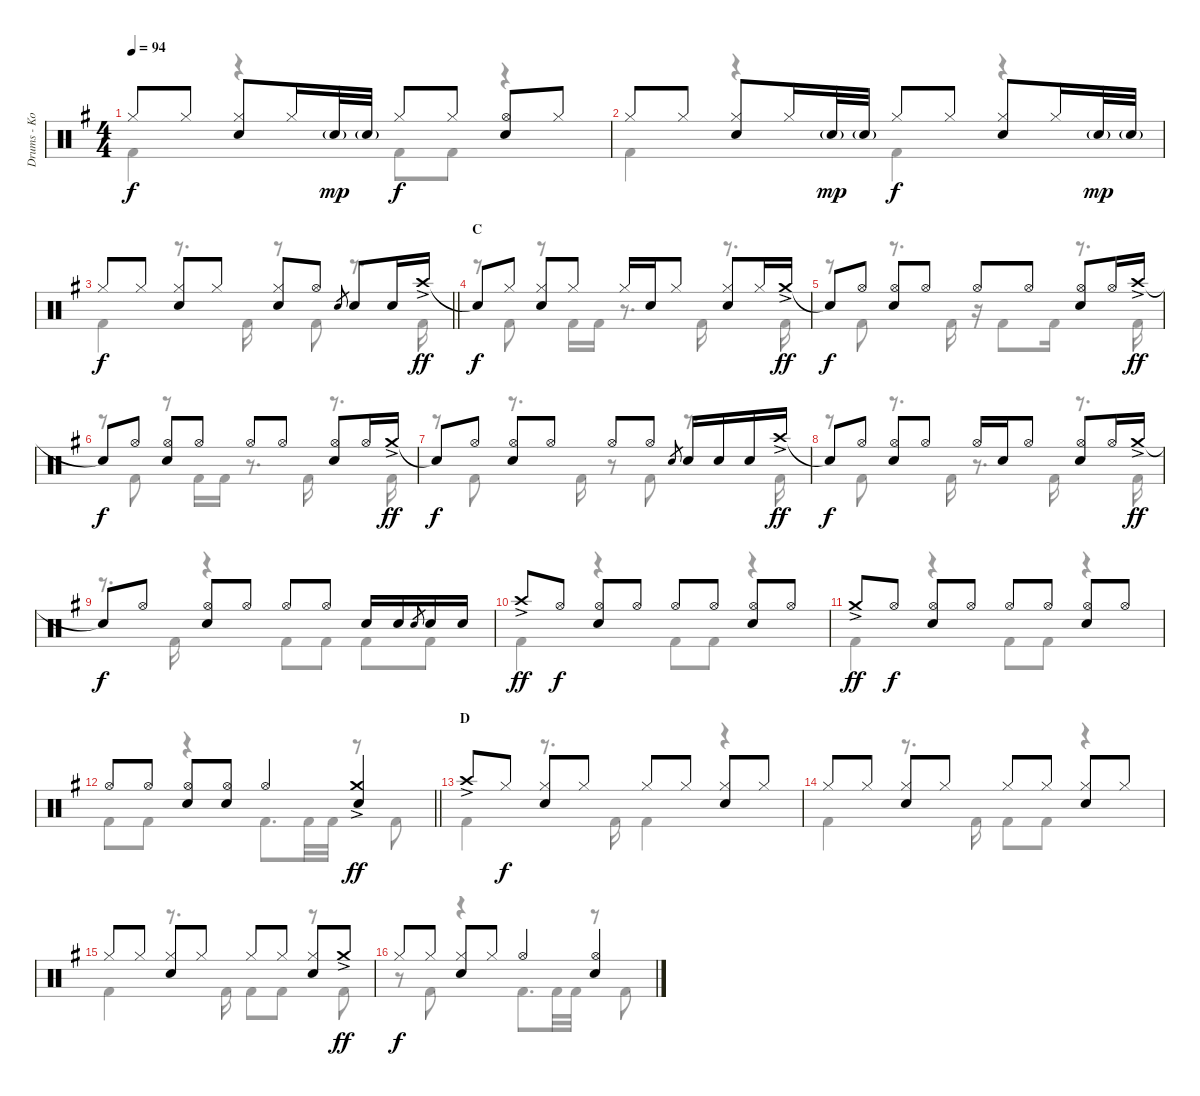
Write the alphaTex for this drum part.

\track ("Drums - Koji Hasegawa" "Drums - Ko") {instrument percussion}
\staff {score}
\articulation defaults
\voice
\ts (4 4)
\tempo 94
\clef neutral
\ks g "Hi-Hat (closed)".8{dy f} "Hi-Hat (closed)".8
("Hi-Hat (closed)" "Electric Snare (hit)").8 "Hi-Hat (closed)".16 "Electric Snare (hit)"{g}.32{dy mp} "Electric Snare (hit)"{g}.32 "Hi-Hat (closed)".8{dy f} "Hi-Hat (closed)".8 ("Hi-Hat (open)" "Electric Snare (hit)").8 "Hi-Hat (closed)".8 |
"Hi-Hat (closed)".8 "Hi-Hat (closed)".8 ("Hi-Hat (closed)" "Electric Snare (hit)").8 "Hi-Hat (closed)".16 "Electric Snare (hit)"{g}.32{dy mp} "Electric Snare (hit)"{g}.32 "Hi-Hat (closed)".8{dy f} "Hi-Hat (closed)".8 ("Hi-Hat (closed)" "Electric Snare (hit)").8 "Hi-Hat (closed)".16 "Electric Snare (hit)"{g}.32{dy mp} "Electric Snare (hit)"{g}.32 |
\barLineRight lightlight "Hi-Hat (closed)".8{dy f} "Hi-Hat (closed)".8
("Hi-Hat (closed)" "Electric Snare (hit)").8 "Hi-Hat (closed)".8 ("Hi-Hat (closed)" "Electric Snare (hit)").8 "Hi-Hat (open)".8 "Electric Snare (hit)".8{gr} "Electric Snare (hit)".8 "Electric Snare (hit)".16 "Crash high (hit)"{ac}.16{dy ff} |
\section ("" "C")
"Snare (hit)"{t}.8{dy f} "Hi-Hat (closed)".8 ("Hi-Hat (closed)" "Snare (hit) 2").8 "Hi-Hat (closed)".8 "Hi-Hat (closed)".16 "Electric Snare (hit)".16 "Hi-Hat (closed)".8 ("Hi-Hat (closed)" "Snare (hit) 2").8 "Hi-Hat (closed)".16 "Crash medium (hit)"{ac}.16{dy ff} |
"Snare (hit)"{t}.8{dy f} "Hi-Hat (open)".8 ("Hi-Hat (open)" "Electric Snare (hit)").8 "Hi-Hat (open)".8 "Hi-Hat (open)".8 "Hi-Hat (open)".8 ("Hi-Hat (open)" "Electric Snare (hit)").8 "Hi-Hat (open)".16 "Crash high (hit)"{ac}.16{dy ff} |
"Snare (hit)"{t}.8{dy f} "Hi-Hat (open)".8 ("Hi-Hat (open)" "Electric Snare (hit)").8 "Hi-Hat (open)".8 "Hi-Hat (open)".8 "Hi-Hat (open)".8 ("Hi-Hat (open)" "Electric Snare (hit)").8 "Hi-Hat (open)".16 "Crash medium (hit)"{ac}.16{dy ff} |
"Snare (hit)"{t}.8{dy f} "Hi-Hat (open)".8 ("Hi-Hat (open)" "Electric Snare (hit)").8 "Hi-Hat (open)".8 "Hi-Hat (open)".8 "Hi-Hat (open)".8 "Electric Snare (hit)".8{gr} "Electric Snare (hit)".16 "Electric Snare (hit)".16 "Electric Snare (hit)".16 "Crash high (hit)"{ac}.16{dy ff} |
"Snare (hit)"{t}.8{dy f} "Hi-Hat (open)".8 ("Hi-Hat (open)" "Snare (hit) 2").8 "Hi-Hat (open)".8 "Hi-Hat (open)".16 "Electric Snare (hit)".16 "Hi-Hat (open)".8 ("Hi-Hat (open)" "Snare (hit) 2").8 "Hi-Hat (open)".16 "Crash medium (hit)"{ac}.16{dy ff} |
"Snare (hit)"{t}.8{dy f} "Hi-Hat (open)".8 ("Hi-Hat (open)" "Electric Snare (hit)").8 "Hi-Hat (open)".8 "Hi-Hat (open)".8 "Hi-Hat (open)".8 "Electric Snare (hit)".16 "Electric Snare (hit)".16 "Electric Snare (hit)".8{gr} "Electric Snare (hit)".16 "Electric Snare (hit)".16 |
"Crash high (hit)"{ac}.8{dy ff} "Hi-Hat (open)".8{dy f} ("Hi-Hat (open)" "Electric Snare (hit)").8 "Hi-Hat (open)".8 "Hi-Hat (open)".8 "Hi-Hat (open)".8 ("Hi-Hat (open)" "Electric Snare (hit)").8 "Hi-Hat (open)".8 |
"Crash medium (hit)"{ac}.8{dy ff} "Hi-Hat (open)".8{dy f} ("Hi-Hat (open)" "Electric Snare (hit)").8 "Hi-Hat (open)".8 "Hi-Hat (open)".8 "Hi-Hat (open)".8 ("Hi-Hat (open)" "Electric Snare (hit)").8 "Hi-Hat (open)".8 |
\barLineRight lightlight "Hi-Hat (open)".8 "Hi-Hat (open)".8
("Hi-Hat (open)" "Electric Snare (hit)").8 ("Hi-Hat (open)" "Electric Snare (hit)").8 "Hi-Hat (open)".4 ("Crash medium (hit)"{ac} "Electric Snare (hit)").4{dy ff} |
\section ("" "D")
"Crash high (hit)"{ac}.8 "Hi-Hat (closed)".8{dy f} ("Hi-Hat (closed)" "Electric Snare (hit)").8 "Hi-Hat (closed)".8 "Hi-Hat (closed)".8 "Hi-Hat (closed)".8 ("Hi-Hat (closed)" "Electric Snare (hit)").8 "Hi-Hat (closed)".8 |
"Hi-Hat (closed)".8 "Hi-Hat (closed)".8 ("Hi-Hat (closed)" "Electric Snare (hit)").8 "Hi-Hat (closed)".8 "Hi-Hat (closed)".8 "Hi-Hat (closed)".8 ("Hi-Hat (closed)" "Electric Snare (hit)").8 "Hi-Hat (closed)".8 |
"Hi-Hat (closed)".8 "Hi-Hat (closed)".8 ("Hi-Hat (closed)" "Electric Snare (hit)").8 "Hi-Hat (closed)".8 "Hi-Hat (closed)".8 "Hi-Hat (closed)".8 ("Hi-Hat (closed)" "Electric Snare (hit)").8 "Crash medium (hit)"{ac}.8{dy ff} |
"Hi-Hat (closed)".8{dy f} "Hi-Hat (closed)".8 ("Hi-Hat (closed)" "Electric Snare (hit)").8 "Hi-Hat (closed)".8 "Hi-Hat (open)".4 ("Hi-Hat (open)" "Snare (hit) 2").4
\voice
\clef neutral
\ottava regular
\simile none
\ks g "Kick (hit) 2".4{dy f}
r.4 "Kick (hit) 2".8 "Kick (hit) 2".8 r.4 |
"Kick (hit) 2".4 r.4 "Kick (hit) 2".4 r.4 |
\barLineRight lightlight "Kick (hit) 2".4
r.8{d} "Kick (hit) 2".16 r.8 "Kick (hit) 2".8 r.8{d} "Kick (hit) 2".16 |
r.8 "Kick (hit) 2".8 r.8 "Kick (hit) 2".16 "Kick (hit) 2".16 r.8{d} "Kick (hit) 2".16 r.8{d} "Kick (hit) 2".16 |
r.8 "Kick (hit) 2".8 r.8{d} "Kick (hit) 2".16 r.16 "Kick (hit) 2".8 "Kick (hit) 2".16 r.8{d} "Kick (hit) 2".16 |
r.8 "Kick (hit) 2".8 r.8 "Kick (hit) 2".16 "Kick (hit) 2".16 r.8{d} "Kick (hit) 2".16 r.8{d} "Kick (hit) 2".16 |
r.8 "Kick (hit) 2".8 r.8{d} "Kick (hit) 2".16 r.8 "Kick (hit) 2".8 r.8{d} "Kick (hit) 2".16 |
r.8 "Kick (hit) 2".8 r.8{d} "Kick (hit) 2".16 r.8{d} "Kick (hit) 2".16 r.8{d} "Kick (hit) 2".16 |
r.8{d} "Kick (hit) 2".16 r.4 "Kick (hit) 2".8 "Kick (hit) 2".8 "Kick (hit) 2".8 "Kick (hit) 2".8 |
"Kick (hit) 2".4 r.4 "Kick (hit) 2".8 "Kick (hit) 2".8 r.4 |
"Kick (hit) 2".4 r.4 "Kick (hit) 2".8 "Kick (hit) 2".8 r.4 |
\barLineRight lightlight "Kick (hit) 2".8 "Kick (hit) 2".8
r.4 "Kick (hit) 2".8{d} "Kick (hit) 2".32 "Kick (hit) 2".32 r.8 "Kick (hit) 2".8 |
"Kick (hit) 2".4 r.8{d} "Kick (hit) 2".16 "Kick (hit) 2".4 r.4 |
"Kick (hit) 2".4 r.8{d} "Kick (hit) 2".16 "Kick (hit) 2".8 "Kick (hit) 2".8 r.4 |
"Kick (hit) 2".4 r.8{d} "Kick (hit) 2".16 "Kick (hit) 2".8 "Kick (hit) 2".8 r.8 "Kick (hit) 2".8 |
r.8 "Kick (hit) 2".8 r.4 "Kick (hit) 2".8{d} "Kick (hit) 2".32 "Kick (hit) 2".32 r.8 "Kick (hit) 2".8
